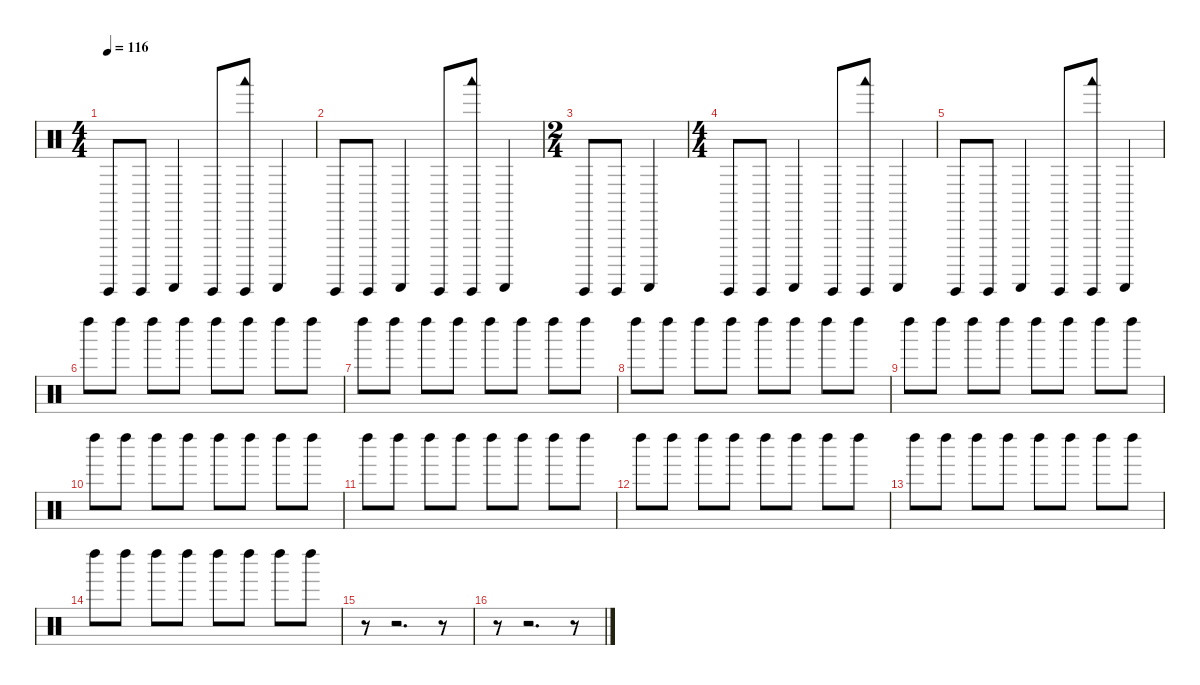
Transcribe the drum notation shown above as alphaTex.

\defaultSystemsLayout 4
\hideDynamics
\bracketExtendMode nobrackets
\singleTrackTrackNamePolicy hidden
\multiTrackTrackNamePolicy hidden
\firstSystemTrackNameMode fullname
\firstSystemTrackNameOrientation horizontal
\otherSystemsTrackNameOrientation horizontal
\track ("Percussions" "drm.") {instrument percussion}
\staff {score}
\articulation defaults
\ts (4 4)
\tempo 116
\clef neutral
\ks c "Guiro (hit)".8{dy f beam Up} "Guiro (hit)".8{beam Up} "Guiro (scrap-return)".4{beam Up} "Guiro (hit)".8{beam Up}
("Guiro (hit)" "Woodblock low (hit)").8{beam Up} "Guiro (scrap-return)".4{beam Up} |
"Guiro (hit)".8{beam Up} "Guiro (hit)".8{beam Up} "Guiro (scrap-return)".4{beam Up} "Guiro (hit)".8{beam Up} ("Guiro (hit)" "Woodblock low (hit)").8{beam Up} "Guiro (scrap-return)".4{beam Up} |
\ts (2 4)
"Guiro (hit)".8{beam Up} "Guiro (hit)".8{beam Up} "Guiro (scrap-return)".4{beam Up} |
\ts (4 4)
"Guiro (hit)".8{beam Up} "Guiro (hit)".8{beam Up} "Guiro (scrap-return)".4{beam Up} "Guiro (hit)".8{beam Up} ("Guiro (hit)" "Woodblock low (hit)").8{beam Up} "Guiro (scrap-return)".4{beam Up} |
"Guiro (hit)".8{beam Up} "Guiro (hit)".8{beam Up} "Guiro (scrap-return)".4{beam Up} "Guiro (hit)".8{beam Up} ("Guiro (hit)" "Woodblock low (hit)").8{beam Up} "Guiro (scrap-return)".4{beam Up} |
"Left Maraca (hit)".8{beam Down} "Left Maraca (hit)".8{beam Down} "Left Maraca (hit)".8{beam Down} "Left Maraca (hit)".8{beam Down} "Left Maraca (hit)".8{beam Down} "Left Maraca (hit)".8{beam Down} "Left Maraca (hit)".8{beam Down} "Left Maraca (hit)".8{beam Down} |
"Left Maraca (hit)".8{beam Down} "Left Maraca (hit)".8{beam Down} "Left Maraca (hit)".8{beam Down} "Left Maraca (hit)".8{beam Down} "Left Maraca (hit)".8{beam Down} "Left Maraca (hit)".8{beam Down} "Left Maraca (hit)".8{beam Down} "Left Maraca (hit)".8{beam Down} |
"Left Maraca (hit)".8{beam Down} "Left Maraca (hit)".8{beam Down} "Left Maraca (hit)".8{beam Down} "Left Maraca (hit)".8{beam Down} "Left Maraca (hit)".8{beam Down} "Left Maraca (hit)".8{beam Down} "Left Maraca (hit)".8{beam Down} "Left Maraca (hit)".8{beam Down} |
"Left Maraca (hit)".8{beam Down} "Left Maraca (hit)".8{beam Down} "Left Maraca (hit)".8{beam Down} "Left Maraca (hit)".8{beam Down} "Left Maraca (hit)".8{beam Down} "Left Maraca (hit)".8{beam Down} "Left Maraca (hit)".8{beam Down} "Left Maraca (hit)".8{beam Down} |
"Left Maraca (hit)".8{beam Down} "Left Maraca (hit)".8{beam Down} "Left Maraca (hit)".8{beam Down} "Left Maraca (hit)".8{beam Down} "Left Maraca (hit)".8{beam Down} "Left Maraca (hit)".8{beam Down} "Left Maraca (hit)".8{beam Down} "Left Maraca (hit)".8{beam Down} |
"Left Maraca (hit)".8{beam Down} "Left Maraca (hit)".8{beam Down} "Left Maraca (hit)".8{beam Down} "Left Maraca (hit)".8{beam Down} "Left Maraca (hit)".8{beam Down} "Left Maraca (hit)".8{beam Down} "Left Maraca (hit)".8{beam Down} "Left Maraca (hit)".8{beam Down} |
"Left Maraca (hit)".8{beam Down} "Left Maraca (hit)".8{beam Down} "Left Maraca (hit)".8{beam Down} "Left Maraca (hit)".8{beam Down} "Left Maraca (hit)".8{beam Down} "Left Maraca (hit)".8{beam Down} "Left Maraca (hit)".8{beam Down} "Left Maraca (hit)".8{beam Down} |
"Left Maraca (hit)".8{beam Down} "Left Maraca (hit)".8{beam Down} "Left Maraca (hit)".8{beam Down} "Left Maraca (hit)".8{beam Down} "Left Maraca (hit)".8{beam Down} "Left Maraca (hit)".8{beam Down} "Left Maraca (hit)".8{beam Down} "Left Maraca (hit)".8{beam Down} |
"Left Maraca (hit)".8{beam Down} "Left Maraca (hit)".8{beam Down} "Left Maraca (hit)".8{beam Down} "Left Maraca (hit)".8{beam Down} "Left Maraca (hit)".8{beam Down} "Left Maraca (hit)".8{beam Down} "Left Maraca (hit)".8{beam Down} "Left Maraca (hit)".8{beam Down} |
r.8{beam Down} r.2{d beam Down} r.8{beam Down} |
r.8{beam Down} r.2{d beam Down} r.8{beam Down}
